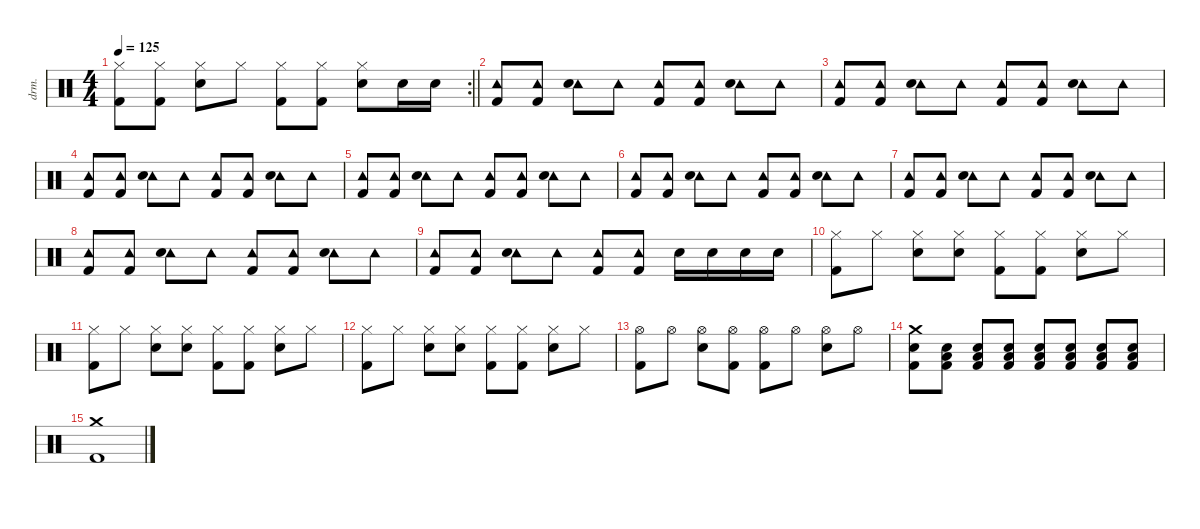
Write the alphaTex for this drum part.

\defaultSystemsLayout 4
\hideDynamics
\bracketExtendMode nobrackets
\otherSystemsTrackNameOrientation horizontal
\track ("Percussions" "drm.") {instrument percussion}
\staff {score}
\articulation defaults
\rc 2
\ts (4 4)
\tempo 125
\clef neutral
\barLineRight lightlight
\ks c
("Hi-Hat (closed)" "Kick (hit) 2").8{dy f} ("Hi-Hat (closed)" "Kick (hit) 2").8 ("Hi-Hat (closed)" "Snare (hit) 2").8 "Hi-Hat (closed)".8 ("Hi-Hat (closed)" "Kick (hit) 2").8 ("Hi-Hat (closed)" "Kick (hit) 2").8 ("Hi-Hat (closed)" "Snare (hit) 2").8 "Snare (hit) 2".16 "Snare (hit) 2".16 |
("Tambourine (hit)" "Kick (hit) 2").8 ("Tambourine (hit)" "Kick (hit) 2").8 ("Tambourine (hit)" "Snare (hit) 2").8 "Tambourine (hit)".8 ("Tambourine (hit)" "Kick (hit) 2").8 ("Tambourine (hit)" "Kick (hit) 2").8 ("Tambourine (hit)" "Snare (hit) 2").8 "Tambourine (hit)".8 |
("Tambourine (hit)" "Kick (hit) 2").8 ("Tambourine (hit)" "Kick (hit) 2").8 ("Tambourine (hit)" "Snare (hit) 2").8 "Tambourine (hit)".8 ("Tambourine (hit)" "Kick (hit) 2").8 ("Tambourine (hit)" "Kick (hit) 2").8 ("Tambourine (hit)" "Snare (hit) 2").8 "Tambourine (hit)".8 |
("Tambourine (hit)" "Kick (hit) 2").8 ("Tambourine (hit)" "Kick (hit) 2").8 ("Tambourine (hit)" "Snare (hit) 2").8 "Tambourine (hit)".8 ("Tambourine (hit)" "Kick (hit) 2").8 ("Tambourine (hit)" "Kick (hit) 2").8 ("Tambourine (hit)" "Snare (hit) 2").8 "Tambourine (hit)".8 |
("Tambourine (hit)" "Kick (hit) 2").8 ("Tambourine (hit)" "Kick (hit) 2").8 ("Tambourine (hit)" "Snare (hit) 2").8 "Tambourine (hit)".8 ("Tambourine (hit)" "Kick (hit) 2").8 ("Tambourine (hit)" "Kick (hit) 2").8 ("Tambourine (hit)" "Snare (hit) 2").8 "Tambourine (hit)".8 |
("Tambourine (hit)" "Kick (hit) 2").8 ("Tambourine (hit)" "Kick (hit) 2").8 ("Tambourine (hit)" "Snare (hit) 2").8 "Tambourine (hit)".8 ("Tambourine (hit)" "Kick (hit) 2").8 ("Tambourine (hit)" "Kick (hit) 2").8 ("Tambourine (hit)" "Snare (hit) 2").8 "Tambourine (hit)".8 |
("Tambourine (hit)" "Kick (hit) 2").8 ("Tambourine (hit)" "Kick (hit) 2").8 ("Tambourine (hit)" "Snare (hit) 2").8 "Tambourine (hit)".8 ("Tambourine (hit)" "Kick (hit) 2").8 ("Tambourine (hit)" "Kick (hit) 2").8 ("Tambourine (hit)" "Snare (hit) 2").8 "Tambourine (hit)".8 |
("Tambourine (hit)" "Kick (hit) 2").8 ("Tambourine (hit)" "Kick (hit) 2").8 ("Tambourine (hit)" "Snare (hit) 2").8 "Tambourine (hit)".8 ("Tambourine (hit)" "Kick (hit) 2").8 ("Tambourine (hit)" "Kick (hit) 2").8 ("Tambourine (hit)" "Snare (hit) 2").8 "Tambourine (hit)".8 |
("Tambourine (hit)" "Kick (hit) 2").8 ("Tambourine (hit)" "Kick (hit) 2").8 ("Tambourine (hit)" "Snare (hit) 2").8 "Tambourine (hit)".8 ("Tambourine (hit)" "Kick (hit) 2").8 ("Tambourine (hit)" "Kick (hit) 2").8 "Snare (hit) 2".16 "Snare (hit) 2".16 "Snare (hit) 2".16 "Snare (hit) 2".16 |
("Hi-Hat (closed)" "Kick (hit) 2").8 "Hi-Hat (closed)".8 ("Hi-Hat (closed)" "Snare (hit) 2").8 ("Hi-Hat (closed)" "Snare (hit) 2").8 ("Hi-Hat (closed)" "Kick (hit) 2").8 ("Hi-Hat (closed)" "Kick (hit) 2").8 ("Hi-Hat (closed)" "Snare (hit) 2").8 "Hi-Hat (closed)".8 |
("Hi-Hat (closed)" "Kick (hit) 2").8 "Hi-Hat (closed)".8 ("Hi-Hat (closed)" "Snare (hit) 2").8 ("Hi-Hat (closed)" "Snare (hit) 2").8 ("Hi-Hat (closed)" "Kick (hit) 2").8 ("Hi-Hat (closed)" "Kick (hit) 2").8 ("Hi-Hat (closed)" "Snare (hit) 2").8 "Hi-Hat (closed)".8 |
("Hi-Hat (closed)" "Kick (hit) 2").8 "Hi-Hat (closed)".8 ("Hi-Hat (closed)" "Snare (hit) 2").8 ("Hi-Hat (closed)" "Snare (hit) 2").8 ("Hi-Hat (closed)" "Kick (hit) 2").8 ("Hi-Hat (closed)" "Kick (hit) 2").8 ("Hi-Hat (closed)" "Snare (hit) 2").8 "Hi-Hat (closed)".8 |
("Hi-Hat (open)" "Kick (hit) 2").8 "Hi-Hat (open)".8 ("Hi-Hat (open)" "Snare (hit) 2").8 ("Hi-Hat (open)" "Kick (hit) 2").8 ("Hi-Hat (open)" "Kick (hit) 2").8 "Hi-Hat (open)".8 ("Hi-Hat (open)" "Snare (hit) 2").8 "Hi-Hat (open)".8 |
("Crash medium (hit)" "Snare (hit) 2" "Kick (hit) 2").8 ("Low Tom (hit)" "Snare (hit) 2" "Kick (hit) 2").8 ("Low Tom (hit)" "Snare (hit) 2" "Kick (hit) 2").8 ("Low Tom (hit)" "Snare (hit) 2" "Kick (hit) 2").8 ("Low Tom (hit)" "Snare (hit) 2" "Kick (hit) 2").8 ("Low Tom (hit)" "Snare (hit) 2" "Kick (hit) 2").8 ("Low Tom (hit)" "Snare (hit) 2" "Kick (hit) 2").8 ("Low Tom (hit)" "Snare (hit) 2" "Kick (hit) 2").8 |
("Crash medium (hit)" "Kick (hit) 2").1
